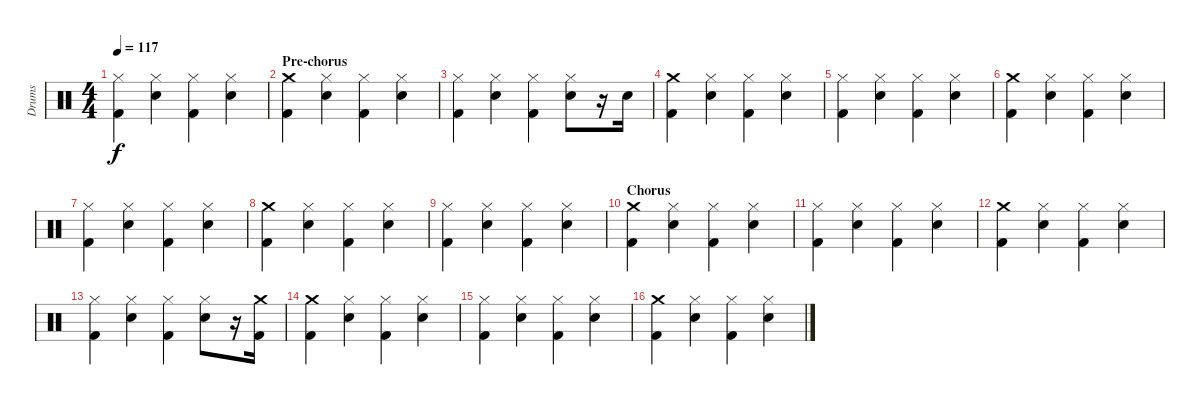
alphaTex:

\track ("Drums" "Drums") {instrument percussion}
\staff {score}
\articulation defaults
\ts (4 4)
\tempo 117
\clef neutral
\ks c
("Hi-Hat (closed)" "Kick (hit) 2").4{dy f} ("Hi-Hat (closed)" "Snare (hit) 2").4 ("Hi-Hat (closed)" "Kick (hit) 2").4 ("Hi-Hat (closed)" "Snare (hit) 2").4 |
\section ("" "Pre-chorus")
("Crash medium (hit)" "Kick (hit) 2").4 ("Hi-Hat (closed)" "Snare (hit) 2").4 ("Hi-Hat (closed)" "Kick (hit) 2").4 ("Hi-Hat (closed)" "Snare (hit) 2").4 |
("Hi-Hat (closed)" "Kick (hit) 2").4 ("Hi-Hat (closed)" "Snare (hit) 2").4 ("Hi-Hat (closed)" "Kick (hit) 2").4 ("Hi-Hat (closed)" "Snare (hit) 2").8 r.16 "Snare (hit) 2".16 |
("Crash medium (hit)" "Kick (hit) 2").4 ("Hi-Hat (closed)" "Snare (hit) 2").4 ("Hi-Hat (closed)" "Kick (hit) 2").4 ("Hi-Hat (closed)" "Snare (hit) 2").4 |
("Hi-Hat (closed)" "Kick (hit) 2").4 ("Hi-Hat (closed)" "Snare (hit) 2").4 ("Hi-Hat (closed)" "Kick (hit) 2").4 ("Hi-Hat (closed)" "Snare (hit) 2").4 |
("Crash medium (hit)" "Kick (hit) 2").4 ("Hi-Hat (closed)" "Snare (hit) 2").4 ("Hi-Hat (closed)" "Kick (hit) 2").4 ("Hi-Hat (closed)" "Snare (hit) 2").4 |
("Hi-Hat (closed)" "Kick (hit) 2").4 ("Hi-Hat (closed)" "Snare (hit) 2").4 ("Hi-Hat (closed)" "Kick (hit) 2").4 ("Hi-Hat (closed)" "Snare (hit) 2").4 |
("Crash medium (hit)" "Kick (hit) 2").4 ("Hi-Hat (closed)" "Snare (hit) 2").4 ("Hi-Hat (closed)" "Kick (hit) 2").4 ("Hi-Hat (closed)" "Snare (hit) 2").4 |
("Hi-Hat (closed)" "Kick (hit) 2").4 ("Hi-Hat (closed)" "Snare (hit) 2").4 ("Hi-Hat (closed)" "Kick (hit) 2").4 ("Hi-Hat (closed)" "Snare (hit) 2").4 |
\section ("" "Chorus")
("Crash medium (hit)" "Kick (hit) 2").4 ("Hi-Hat (closed)" "Snare (hit) 2").4 ("Hi-Hat (closed)" "Kick (hit) 2").4 ("Hi-Hat (closed)" "Snare (hit) 2").4 |
("Hi-Hat (closed)" "Kick (hit) 2").4 ("Hi-Hat (closed)" "Snare (hit) 2").4 ("Hi-Hat (closed)" "Kick (hit) 2").4 ("Hi-Hat (closed)" "Snare (hit) 2").4 |
("Crash medium (hit)" "Kick (hit) 2").4 ("Hi-Hat (closed)" "Snare (hit) 2").4 ("Hi-Hat (closed)" "Kick (hit) 2").4 ("Hi-Hat (closed)" "Snare (hit) 2").4 |
("Hi-Hat (closed)" "Kick (hit) 2").4 ("Hi-Hat (closed)" "Snare (hit) 2").4 ("Hi-Hat (closed)" "Kick (hit) 2").4 ("Hi-Hat (closed)" "Snare (hit) 2").8 r.16 ("Crash medium (hit)" "Kick (hit) 2").16 |
("Crash medium (hit)" "Kick (hit) 2").4 ("Hi-Hat (closed)" "Snare (hit) 2").4 ("Hi-Hat (closed)" "Kick (hit) 2").4 ("Hi-Hat (closed)" "Snare (hit) 2").4 |
("Hi-Hat (closed)" "Kick (hit) 2").4 ("Hi-Hat (closed)" "Snare (hit) 2").4 ("Hi-Hat (closed)" "Kick (hit) 2").4 ("Hi-Hat (closed)" "Snare (hit) 2").4 |
("Crash medium (hit)" "Kick (hit) 2").4 ("Hi-Hat (closed)" "Snare (hit) 2").4 ("Hi-Hat (closed)" "Kick (hit) 2").4 ("Hi-Hat (closed)" "Snare (hit) 2").4
